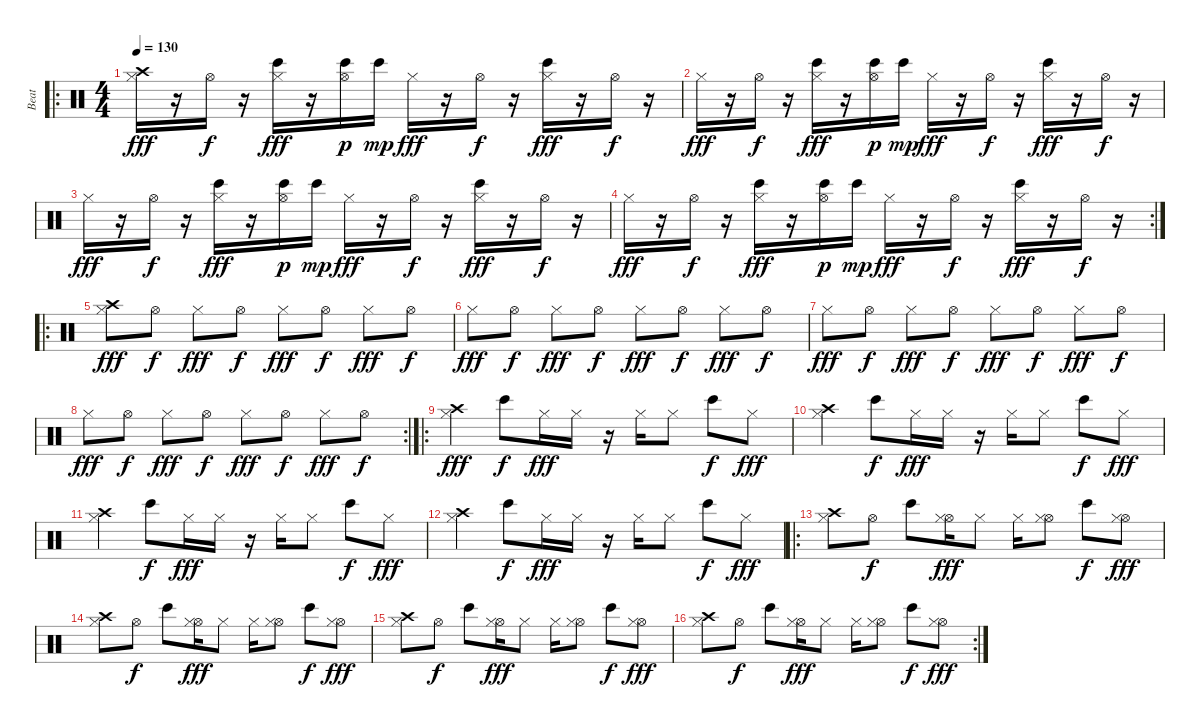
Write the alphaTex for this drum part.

\track ("Beat" "Beat") {instrument percussion}
\staff {score}
\articulation defaults
\ro
\ts (4 4)
\tempo 130
\clef neutral
\ks c
("Crash high (hit)" "Hi-Hat (closed)").16{dy fff} r.16 "Hi-Hat (open)".16{dy f} r.16 ("Bongo High (hit)" "Hi-Hat (closed)").16{dy fff} r.16 ("Hi-Hat (open)" "Bongo High (hit)").16{dy p} "Bongo High (hit)".16{dy mp} "Hi-Hat (closed)".16{dy fff} r.16 "Hi-Hat (open)".16{dy f} r.16 ("Bongo High (hit)" "Hi-Hat (closed)").16{dy fff} r.16 "Hi-Hat (open)".16{dy f} r.16 |
"Hi-Hat (closed)".16{dy fff} r.16 "Hi-Hat (open)".16{dy f} r.16 ("Bongo High (hit)" "Hi-Hat (closed)").16{dy fff} r.16 ("Hi-Hat (open)" "Bongo High (hit)").16{dy p} "Bongo High (hit)".16{dy mp} "Hi-Hat (closed)".16{dy fff} r.16 "Hi-Hat (open)".16{dy f} r.16 ("Bongo High (hit)" "Hi-Hat (closed)").16{dy fff} r.16 "Hi-Hat (open)".16{dy f} r.16 |
"Hi-Hat (closed)".16{dy fff} r.16 "Hi-Hat (open)".16{dy f} r.16 ("Bongo High (hit)" "Hi-Hat (closed)").16{dy fff} r.16 ("Hi-Hat (open)" "Bongo High (hit)").16{dy p} "Bongo High (hit)".16{dy mp} "Hi-Hat (closed)".16{dy fff} r.16 "Hi-Hat (open)".16{dy f} r.16 ("Bongo High (hit)" "Hi-Hat (closed)").16{dy fff} r.16 "Hi-Hat (open)".16{dy f} r.16 |
\rc 2 "Hi-Hat (closed)".16{dy fff}
r.16 "Hi-Hat (open)".16{dy f} r.16 ("Bongo High (hit)" "Hi-Hat (closed)").16{dy fff} r.16 ("Hi-Hat (open)" "Bongo High (hit)").16{dy p} "Bongo High (hit)".16{dy mp} "Hi-Hat (closed)".16{dy fff} r.16 "Hi-Hat (open)".16{dy f} r.16 ("Bongo High (hit)" "Hi-Hat (closed)").16{dy fff} r.16 "Hi-Hat (open)".16{dy f} r.16 |
\ro
("Crash high (hit)" "Hi-Hat (closed)").8{dy fff} "Hi-Hat (open)".8{dy f} "Hi-Hat (closed)".8{dy fff} "Hi-Hat (open)".8{dy f} "Hi-Hat (closed)".8{dy fff} "Hi-Hat (open)".8{dy f} "Hi-Hat (closed)".8{dy fff} "Hi-Hat (open)".8{dy f} |
"Hi-Hat (closed)".8{dy fff} "Hi-Hat (open)".8{dy f} "Hi-Hat (closed)".8{dy fff} "Hi-Hat (open)".8{dy f} "Hi-Hat (closed)".8{dy fff} "Hi-Hat (open)".8{dy f} "Hi-Hat (closed)".8{dy fff} "Hi-Hat (open)".8{dy f} |
"Hi-Hat (closed)".8{dy fff} "Hi-Hat (open)".8{dy f} "Hi-Hat (closed)".8{dy fff} "Hi-Hat (open)".8{dy f} "Hi-Hat (closed)".8{dy fff} "Hi-Hat (open)".8{dy f} "Hi-Hat (closed)".8{dy fff} "Hi-Hat (open)".8{dy f} |
\rc 2 "Hi-Hat (closed)".8{dy fff} "Hi-Hat (open)".8{dy f} "Hi-Hat (closed)".8{dy fff} "Hi-Hat (open)".8{dy f} "Hi-Hat (closed)".8{dy fff} "Hi-Hat (open)".8{dy f} "Hi-Hat (closed)".8{dy fff} "Hi-Hat (open)".8{dy f}
|
\ro
("Crash high (hit)" "Hi-Hat (closed)").4{dy fff} "Bongo High (hit)".8{dy f} "Hi-Hat (closed)".16{dy fff} "Hi-Hat (closed)".16 r.16 "Hi-Hat (closed)".16 "Hi-Hat (closed)".8 "Bongo High (hit)".8{dy f} "Hi-Hat (closed)".8{dy fff} |
("Crash high (hit)" "Hi-Hat (closed)").4 "Bongo High (hit)".8{dy f} "Hi-Hat (closed)".16{dy fff} "Hi-Hat (closed)".16 r.16 "Hi-Hat (closed)".16 "Hi-Hat (closed)".8 "Bongo High (hit)".8{dy f} "Hi-Hat (closed)".8{dy fff} |
("Crash high (hit)" "Hi-Hat (closed)").4 "Bongo High (hit)".8{dy f} "Hi-Hat (closed)".16{dy fff} "Hi-Hat (closed)".16 r.16 "Hi-Hat (closed)".16 "Hi-Hat (closed)".8 "Bongo High (hit)".8{dy f} "Hi-Hat (closed)".8{dy fff} |
("Crash high (hit)" "Hi-Hat (closed)").4 "Bongo High (hit)".8{dy f} "Hi-Hat (closed)".16{dy fff} "Hi-Hat (closed)".16 r.16 "Hi-Hat (closed)".16 "Hi-Hat (closed)".8 "Bongo High (hit)".8{dy f} "Hi-Hat (closed)".8{dy fff} |
\ro
("Crash high (hit)" "Hi-Hat (closed)").8 "Hi-Hat (open)".8{dy f} "Bongo High (hit)".8 ("Hi-Hat (open)" "Hi-Hat (closed)").16{dy fff} "Hi-Hat (closed)".8 "Hi-Hat (closed)".16 ("Hi-Hat (open)" "Hi-Hat (closed)").8 "Bongo High (hit)".8{dy f} ("Hi-Hat (open)" "Hi-Hat (closed)").8{dy fff} |
("Crash high (hit)" "Hi-Hat (closed)").8 "Hi-Hat (open)".8{dy f} "Bongo High (hit)".8 ("Hi-Hat (open)" "Hi-Hat (closed)").16{dy fff} "Hi-Hat (closed)".8 "Hi-Hat (closed)".16 ("Hi-Hat (open)" "Hi-Hat (closed)").8 "Bongo High (hit)".8{dy f} ("Hi-Hat (open)" "Hi-Hat (closed)").8{dy fff} |
("Crash high (hit)" "Hi-Hat (closed)").8 "Hi-Hat (open)".8{dy f} "Bongo High (hit)".8 ("Hi-Hat (open)" "Hi-Hat (closed)").16{dy fff} "Hi-Hat (closed)".8 "Hi-Hat (closed)".16 ("Hi-Hat (open)" "Hi-Hat (closed)").8 "Bongo High (hit)".8{dy f} ("Hi-Hat (open)" "Hi-Hat (closed)").8{dy fff} |
\rc 2
("Crash high (hit)" "Hi-Hat (closed)").8 "Hi-Hat (open)".8{dy f} "Bongo High (hit)".8 ("Hi-Hat (open)" "Hi-Hat (closed)").16{dy fff} "Hi-Hat (closed)".8 "Hi-Hat (closed)".16 ("Hi-Hat (open)" "Hi-Hat (closed)").8 "Bongo High (hit)".8{dy f} ("Hi-Hat (open)" "Hi-Hat (closed)").8{dy fff}
